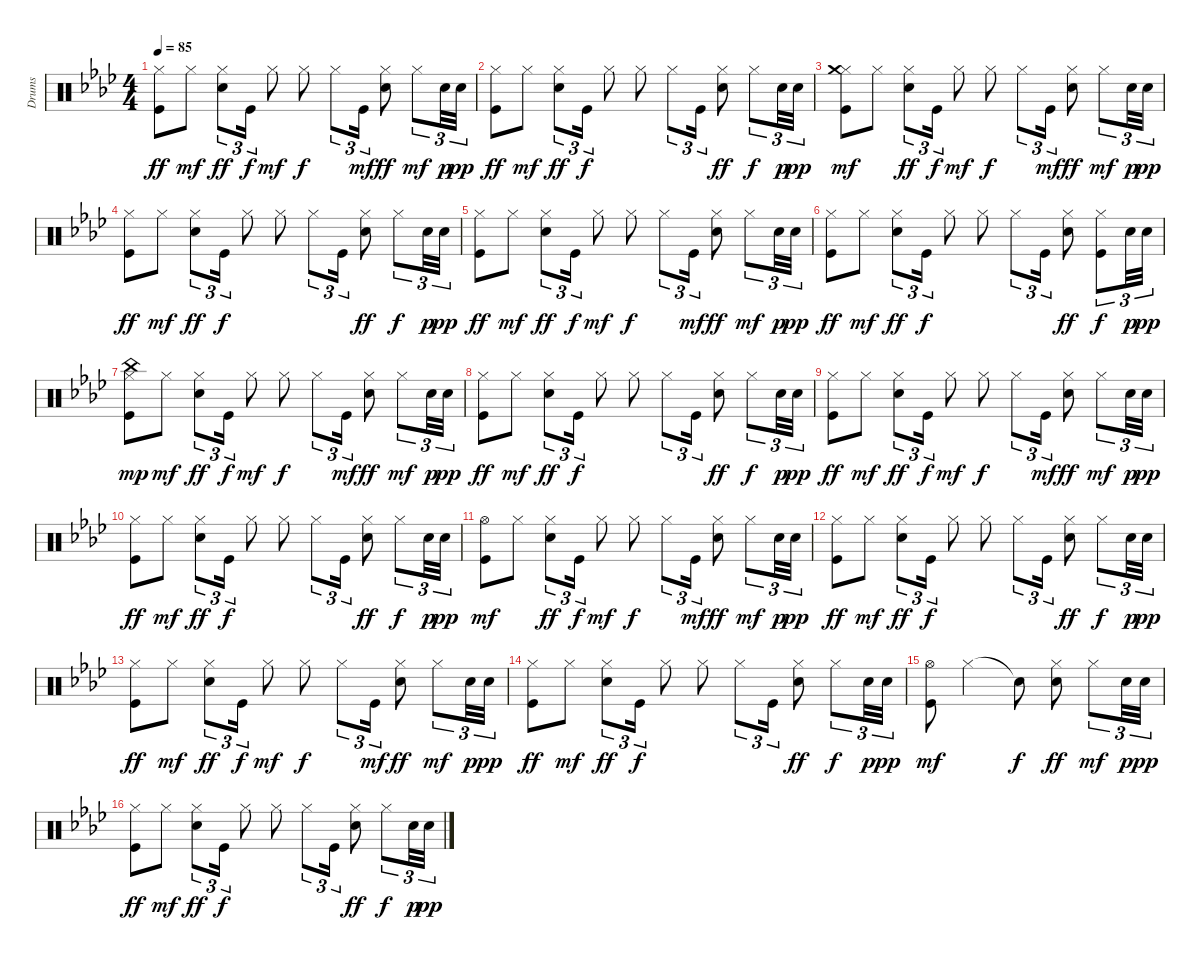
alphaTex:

\track ("Drums" "Drums") {instrument percussion}
\staff {score}
\articulation defaults
\ts (4 4)
\tempo 85
\clef neutral
\ks ab
("Kick (hit)" "Hi-Hat (closed)").8{dy ff} "Hi-Hat (closed)".8{dy mf} ("Electric Snare (hit)" "Hi-Hat (closed)").8{tu (3 2) dy ff} "Kick (hit)".16{tu (3 2) dy f} "Hi-Hat (closed)".8{dy mf} "Hi-Hat (closed)".8{dy f} "Hi-Hat (closed)".8{tu (3 2)} "Kick (hit)".16{tu (3 2) dy mf} ("Electric Snare (hit)" "Hi-Hat (closed)").8{dy ff} "Hi-Hat (closed)".8{tu (3 2) dy mf} "Snare (hit) 2".32{tu (3 2) dy p} "Snare (hit) 2".32{tu (3 2) dy pp} |
("Kick (hit)" "Hi-Hat (closed)").8{dy ff} "Hi-Hat (closed)".8{dy mf} ("Electric Snare (hit)" "Hi-Hat (closed)").8{tu (3 2) dy ff} "Kick (hit)".16{tu (3 2) dy f} "Hi-Hat (closed)".8 "Hi-Hat (closed)".8 "Hi-Hat (closed)".8{tu (3 2)} "Kick (hit)".16{tu (3 2)} ("Electric Snare (hit)" "Hi-Hat (closed)").8{dy ff} "Hi-Hat (closed)".8{tu (3 2) dy f} "Snare (hit) 2".32{tu (3 2) dy p} "Snare (hit) 2".32{tu (3 2) dy pp} |
("Kick (hit)" "Hi-Hat (closed)" "Crash medium (hit)").8{dy mf} "Hi-Hat (closed)".8 ("Electric Snare (hit)" "Hi-Hat (closed)").8{tu (3 2) dy ff} "Kick (hit)".16{tu (3 2) dy f} "Hi-Hat (closed)".8{dy mf} "Hi-Hat (closed)".8{dy f} "Hi-Hat (closed)".8{tu (3 2)} "Kick (hit)".16{tu (3 2) dy mf} ("Electric Snare (hit)" "Hi-Hat (closed)").8{dy ff} "Hi-Hat (closed)".8{tu (3 2) dy mf} "Snare (hit) 2".32{tu (3 2) dy p} "Snare (hit) 2".32{tu (3 2) dy pp} |
("Kick (hit)" "Hi-Hat (closed)").8{dy ff} "Hi-Hat (closed)".8{dy mf} ("Electric Snare (hit)" "Hi-Hat (closed)").8{tu (3 2) dy ff} "Kick (hit)".16{tu (3 2) dy f} "Hi-Hat (closed)".8 "Hi-Hat (closed)".8 "Hi-Hat (closed)".8{tu (3 2)} "Kick (hit)".16{tu (3 2)} ("Electric Snare (hit)" "Hi-Hat (closed)").8{dy ff} "Hi-Hat (closed)".8{tu (3 2) dy f} "Snare (hit) 2".32{tu (3 2) dy p} "Snare (hit) 2".32{tu (3 2) dy pp} |
("Kick (hit)" "Hi-Hat (closed)").8{dy ff} "Hi-Hat (closed)".8{dy mf} ("Electric Snare (hit)" "Hi-Hat (closed)").8{tu (3 2) dy ff} "Kick (hit)".16{tu (3 2) dy f} "Hi-Hat (closed)".8{dy mf} "Hi-Hat (closed)".8{dy f} "Hi-Hat (closed)".8{tu (3 2)} "Kick (hit)".16{tu (3 2) dy mf} ("Electric Snare (hit)" "Hi-Hat (closed)").8{dy ff} "Hi-Hat (closed)".8{tu (3 2) dy mf} "Snare (hit) 2".32{tu (3 2) dy p} "Snare (hit) 2".32{tu (3 2) dy pp} |
("Kick (hit)" "Hi-Hat (closed)").8{dy ff} "Hi-Hat (closed)".8{dy mf} ("Electric Snare (hit)" "Hi-Hat (closed)").8{tu (3 2) dy ff} "Kick (hit)".16{tu (3 2) dy f} "Hi-Hat (closed)".8 "Hi-Hat (closed)".8 "Hi-Hat (closed)".8{tu (3 2)} "Kick (hit)".16{tu (3 2)} ("Electric Snare (hit)" "Hi-Hat (closed)").8{dy ff} ("Kick (hit)" "Hi-Hat (closed)").8{tu (3 2) dy f} "Snare (hit) 2".32{tu (3 2) dy p} "Snare (hit) 2".32{tu (3 2) dy pp} |
("Kick (hit)" "Hi-Hat (closed)" "China (hit)").8{dy mp} "Hi-Hat (closed)".8{dy mf} ("Electric Snare (hit)" "Hi-Hat (closed)").8{tu (3 2) dy ff} "Kick (hit)".16{tu (3 2) dy f} "Hi-Hat (closed)".8{dy mf} "Hi-Hat (closed)".8{dy f} "Hi-Hat (closed)".8{tu (3 2)} "Kick (hit)".16{tu (3 2) dy mf} ("Electric Snare (hit)" "Hi-Hat (closed)").8{dy ff} "Hi-Hat (closed)".8{tu (3 2) dy mf} "Snare (hit) 2".32{tu (3 2) dy p} "Snare (hit) 2".32{tu (3 2) dy pp} |
("Kick (hit)" "Hi-Hat (closed)").8{dy ff} "Hi-Hat (closed)".8{dy mf} ("Electric Snare (hit)" "Hi-Hat (closed)").8{tu (3 2) dy ff} "Kick (hit)".16{tu (3 2) dy f} "Hi-Hat (closed)".8 "Hi-Hat (closed)".8 "Hi-Hat (closed)".8{tu (3 2)} "Kick (hit)".16{tu (3 2)} ("Electric Snare (hit)" "Hi-Hat (closed)").8{dy ff} "Hi-Hat (closed)".8{tu (3 2) dy f} "Snare (hit) 2".32{tu (3 2) dy p} "Snare (hit) 2".32{tu (3 2) dy pp} |
("Kick (hit)" "Hi-Hat (closed)").8{dy ff} "Hi-Hat (closed)".8{dy mf} ("Electric Snare (hit)" "Hi-Hat (closed)").8{tu (3 2) dy ff} "Kick (hit)".16{tu (3 2) dy f} "Hi-Hat (closed)".8{dy mf} "Hi-Hat (closed)".8{dy f} "Hi-Hat (closed)".8{tu (3 2)} "Kick (hit)".16{tu (3 2) dy mf} ("Electric Snare (hit)" "Hi-Hat (closed)").8{dy ff} "Hi-Hat (closed)".8{tu (3 2) dy mf} "Snare (hit) 2".32{tu (3 2) dy p} "Snare (hit) 2".32{tu (3 2) dy pp} |
("Kick (hit)" "Hi-Hat (closed)").8{dy ff} "Hi-Hat (closed)".8{dy mf} ("Electric Snare (hit)" "Hi-Hat (closed)").8{tu (3 2) dy ff} "Kick (hit)".16{tu (3 2) dy f} "Hi-Hat (closed)".8 "Hi-Hat (closed)".8 "Hi-Hat (closed)".8{tu (3 2)} "Kick (hit)".16{tu (3 2)} ("Electric Snare (hit)" "Hi-Hat (closed)").8{dy ff} "Hi-Hat (closed)".8{tu (3 2) dy f} "Snare (hit) 2".32{tu (3 2) dy p} "Snare (hit) 2".32{tu (3 2) dy pp} |
("Kick (hit)" "Hi-Hat (open)").8{dy mf} "Hi-Hat (closed)".8 ("Electric Snare (hit)" "Hi-Hat (closed)").8{tu (3 2) dy ff} "Kick (hit)".16{tu (3 2) dy f} "Hi-Hat (closed)".8{dy mf} "Hi-Hat (closed)".8{dy f} "Hi-Hat (closed)".8{tu (3 2)} "Kick (hit)".16{tu (3 2) dy mf} ("Electric Snare (hit)" "Hi-Hat (closed)").8{dy ff} "Hi-Hat (closed)".8{tu (3 2) dy mf} "Snare (hit) 2".32{tu (3 2) dy p} "Snare (hit) 2".32{tu (3 2) dy pp} |
("Kick (hit)" "Hi-Hat (closed)").8{dy ff} "Hi-Hat (closed)".8{dy mf} ("Electric Snare (hit)" "Hi-Hat (closed)").8{tu (3 2) dy ff} "Kick (hit)".16{tu (3 2) dy f} "Hi-Hat (closed)".8 "Hi-Hat (closed)".8 "Hi-Hat (closed)".8{tu (3 2)} "Kick (hit)".16{tu (3 2)} ("Electric Snare (hit)" "Hi-Hat (closed)").8{dy ff} "Hi-Hat (closed)".8{tu (3 2) dy f} "Snare (hit) 2".32{tu (3 2) dy p} "Snare (hit) 2".32{tu (3 2) dy pp} |
("Kick (hit)" "Hi-Hat (closed)").8{dy ff} "Hi-Hat (closed)".8{dy mf} ("Electric Snare (hit)" "Hi-Hat (closed)").8{tu (3 2) dy ff} "Kick (hit)".16{tu (3 2) dy f} "Hi-Hat (closed)".8{dy mf} "Hi-Hat (closed)".8{dy f} "Hi-Hat (closed)".8{tu (3 2)} "Kick (hit)".16{tu (3 2) dy mf} ("Electric Snare (hit)" "Hi-Hat (closed)").8{dy ff} "Hi-Hat (closed)".8{tu (3 2) dy mf} "Snare (hit) 2".32{tu (3 2) dy p} "Snare (hit) 2".32{tu (3 2) dy pp} |
("Kick (hit)" "Hi-Hat (closed)").8{dy ff} "Hi-Hat (closed)".8{dy mf} ("Electric Snare (hit)" "Hi-Hat (closed)").8{tu (3 2) dy ff} "Kick (hit)".16{tu (3 2) dy f} "Hi-Hat (closed)".8 "Hi-Hat (closed)".8 "Hi-Hat (closed)".8{tu (3 2)} "Kick (hit)".16{tu (3 2)} ("Electric Snare (hit)" "Hi-Hat (closed)").8{dy ff} "Hi-Hat (closed)".8{tu (3 2) dy f} "Snare (hit) 2".32{tu (3 2) dy p} "Snare (hit) 2".32{tu (3 2) dy pp} |
("Kick (hit)" "Hi-Hat (open)").8{dy mf} "Hi-Hat (closed)".2 "Snare (hit)"{t}.8{dy f} ("Electric Snare (hit)" "Hi-Hat (closed)").8{dy ff} "Hi-Hat (closed)".8{tu (3 2) dy mf} "Snare (hit) 2".32{tu (3 2) dy p} "Snare (hit) 2".32{tu (3 2) dy pp} |
("Kick (hit)" "Hi-Hat (closed)").8{dy ff} "Hi-Hat (closed)".8{dy mf} ("Electric Snare (hit)" "Hi-Hat (closed)").8{tu (3 2) dy ff} "Kick (hit)".16{tu (3 2) dy f} "Hi-Hat (closed)".8 "Hi-Hat (closed)".8 "Hi-Hat (closed)".8{tu (3 2)} "Kick (hit)".16{tu (3 2)} ("Electric Snare (hit)" "Hi-Hat (closed)").8{dy ff} "Hi-Hat (closed)".8{tu (3 2) dy f} "Snare (hit) 2".32{tu (3 2) dy p} "Snare (hit) 2".32{tu (3 2) dy pp}
